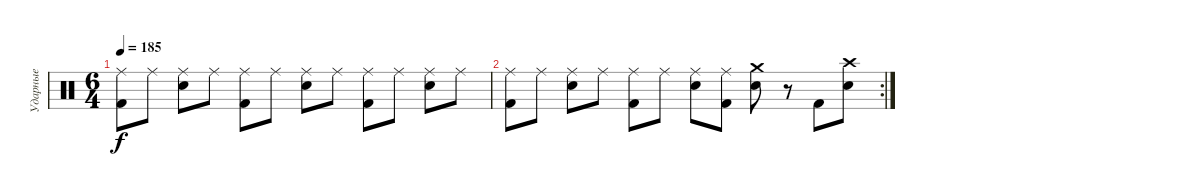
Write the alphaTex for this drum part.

\track ("Ударные" "Ударные") {instrument percussion}
\staff {score}
\articulation defaults
\ts (6 4)
\tempo 185
\clef neutral
\ks c
("Ride (middle)" "Kick (hit) 2").8{dy f} "Ride (middle)".8 ("Ride (middle)" "Electric Snare (hit)").8 "Ride (middle)".8 ("Ride (middle)" "Kick (hit) 2").8 "Ride (middle)".8 ("Ride (middle)" "Electric Snare (hit)").8 "Ride (middle)".8 ("Ride (middle)" "Kick (hit) 2").8 "Ride (middle)".8 ("Ride (middle)" "Electric Snare (hit)").8 "Ride (middle)".8 |
\rc 2
("Ride (middle)" "Kick (hit) 2").8 "Ride (middle)".8 ("Ride (middle)" "Electric Snare (hit)").8 "Ride (middle)".8 ("Ride (middle)" "Kick (hit) 2").8 "Ride (middle)".8 ("Ride (middle)" "Electric Snare (hit)").8 ("Ride (middle)" "Kick (hit) 2").8 ("Crash medium (hit)" "Electric Snare (hit)").8 r.8 "Kick (hit) 2".8 ("Crash high (hit)" "Electric Snare (hit)").8
